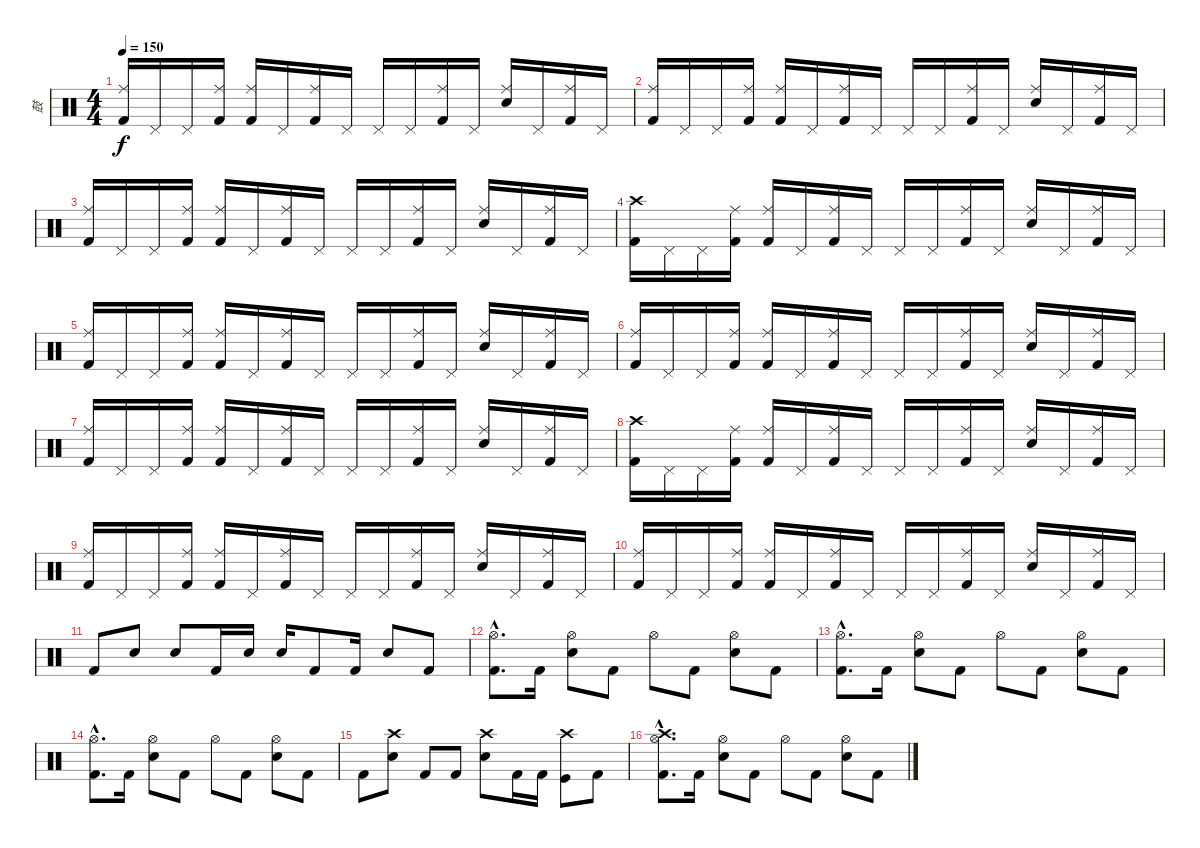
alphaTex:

\track ("鼓" "鼓") {instrument percussion}
\staff {score}
\articulation defaults
\ts (4 4)
\tempo 150
\clef neutral
\ks c
("Ride (middle)" "Kick (hit) 2").16{dy f} "Pedal Hi-Hat (hit)".16 "Pedal Hi-Hat (hit)".16 ("Ride (middle)" "Kick (hit) 2").16 ("Ride (middle)" "Kick (hit) 2").16 "Pedal Hi-Hat (hit)".16 ("Ride (middle)" "Kick (hit) 2").16 "Pedal Hi-Hat (hit)".16 "Pedal Hi-Hat (hit)".16 "Pedal Hi-Hat (hit)".16 ("Ride (middle)" "Kick (hit) 2").16 "Pedal Hi-Hat (hit)".16 ("Ride (middle)" "Electric Snare (hit)").16 "Pedal Hi-Hat (hit)".16 ("Ride (middle)" "Kick (hit) 2").16 "Pedal Hi-Hat (hit)".16 |
("Ride (middle)" "Kick (hit) 2").16 "Pedal Hi-Hat (hit)".16 "Pedal Hi-Hat (hit)".16 ("Ride (middle)" "Kick (hit) 2").16 ("Ride (middle)" "Kick (hit) 2").16 "Pedal Hi-Hat (hit)".16 ("Ride (middle)" "Kick (hit) 2").16 "Pedal Hi-Hat (hit)".16 "Pedal Hi-Hat (hit)".16 "Pedal Hi-Hat (hit)".16 ("Ride (middle)" "Kick (hit) 2").16 "Pedal Hi-Hat (hit)".16 ("Ride (middle)" "Electric Snare (hit)").16 "Pedal Hi-Hat (hit)".16 ("Ride (middle)" "Kick (hit) 2").16 "Pedal Hi-Hat (hit)".16 |
("Ride (middle)" "Kick (hit) 2").16 "Pedal Hi-Hat (hit)".16 "Pedal Hi-Hat (hit)".16 ("Ride (middle)" "Kick (hit) 2").16 ("Ride (middle)" "Kick (hit) 2").16 "Pedal Hi-Hat (hit)".16 ("Ride (middle)" "Kick (hit) 2").16 "Pedal Hi-Hat (hit)".16 "Pedal Hi-Hat (hit)".16 "Pedal Hi-Hat (hit)".16 ("Ride (middle)" "Kick (hit) 2").16 "Pedal Hi-Hat (hit)".16 ("Ride (middle)" "Electric Snare (hit)").16 "Pedal Hi-Hat (hit)".16 ("Ride (middle)" "Kick (hit) 2").16 "Pedal Hi-Hat (hit)".16 |
("Crash high (hit)" "Kick (hit) 2").16 "Pedal Hi-Hat (hit)".16 "Pedal Hi-Hat (hit)".16 ("Ride (middle)" "Kick (hit) 2").16 ("Ride (middle)" "Kick (hit) 2").16 "Pedal Hi-Hat (hit)".16 ("Ride (middle)" "Kick (hit) 2").16 "Pedal Hi-Hat (hit)".16 "Pedal Hi-Hat (hit)".16 "Pedal Hi-Hat (hit)".16 ("Ride (middle)" "Kick (hit) 2").16 "Pedal Hi-Hat (hit)".16 ("Ride (middle)" "Electric Snare (hit)").16 "Pedal Hi-Hat (hit)".16 ("Ride (middle)" "Kick (hit) 2").16 "Pedal Hi-Hat (hit)".16 |
("Ride (middle)" "Kick (hit) 2").16 "Pedal Hi-Hat (hit)".16 "Pedal Hi-Hat (hit)".16 ("Ride (middle)" "Kick (hit) 2").16 ("Ride (middle)" "Kick (hit) 2").16 "Pedal Hi-Hat (hit)".16 ("Ride (middle)" "Kick (hit) 2").16 "Pedal Hi-Hat (hit)".16 "Pedal Hi-Hat (hit)".16 "Pedal Hi-Hat (hit)".16 ("Ride (middle)" "Kick (hit) 2").16 "Pedal Hi-Hat (hit)".16 ("Ride (middle)" "Electric Snare (hit)").16 "Pedal Hi-Hat (hit)".16 ("Ride (middle)" "Kick (hit) 2").16 "Pedal Hi-Hat (hit)".16 |
("Ride (middle)" "Kick (hit) 2").16 "Pedal Hi-Hat (hit)".16 "Pedal Hi-Hat (hit)".16 ("Ride (middle)" "Kick (hit) 2").16 ("Ride (middle)" "Kick (hit) 2").16 "Pedal Hi-Hat (hit)".16 ("Ride (middle)" "Kick (hit) 2").16 "Pedal Hi-Hat (hit)".16 "Pedal Hi-Hat (hit)".16 "Pedal Hi-Hat (hit)".16 ("Ride (middle)" "Kick (hit) 2").16 "Pedal Hi-Hat (hit)".16 ("Ride (middle)" "Electric Snare (hit)").16 "Pedal Hi-Hat (hit)".16 ("Ride (middle)" "Kick (hit) 2").16 "Pedal Hi-Hat (hit)".16 |
("Ride (middle)" "Kick (hit) 2").16 "Pedal Hi-Hat (hit)".16 "Pedal Hi-Hat (hit)".16 ("Ride (middle)" "Kick (hit) 2").16 ("Ride (middle)" "Kick (hit) 2").16 "Pedal Hi-Hat (hit)".16 ("Ride (middle)" "Kick (hit) 2").16 "Pedal Hi-Hat (hit)".16 "Pedal Hi-Hat (hit)".16 "Pedal Hi-Hat (hit)".16 ("Ride (middle)" "Kick (hit) 2").16 "Pedal Hi-Hat (hit)".16 ("Ride (middle)" "Electric Snare (hit)").16 "Pedal Hi-Hat (hit)".16 ("Ride (middle)" "Kick (hit) 2").16 "Pedal Hi-Hat (hit)".16 |
("Crash high (hit)" "Kick (hit) 2").16 "Pedal Hi-Hat (hit)".16 "Pedal Hi-Hat (hit)".16 ("Ride (middle)" "Kick (hit) 2").16 ("Ride (middle)" "Kick (hit) 2").16 "Pedal Hi-Hat (hit)".16 ("Ride (middle)" "Kick (hit) 2").16 "Pedal Hi-Hat (hit)".16 "Pedal Hi-Hat (hit)".16 "Pedal Hi-Hat (hit)".16 ("Ride (middle)" "Kick (hit) 2").16 "Pedal Hi-Hat (hit)".16 ("Ride (middle)" "Electric Snare (hit)").16 "Pedal Hi-Hat (hit)".16 ("Ride (middle)" "Kick (hit) 2").16 "Pedal Hi-Hat (hit)".16 |
("Ride (middle)" "Kick (hit) 2").16 "Pedal Hi-Hat (hit)".16 "Pedal Hi-Hat (hit)".16 ("Ride (middle)" "Kick (hit) 2").16 ("Ride (middle)" "Kick (hit) 2").16 "Pedal Hi-Hat (hit)".16 ("Ride (middle)" "Kick (hit) 2").16 "Pedal Hi-Hat (hit)".16 "Pedal Hi-Hat (hit)".16 "Pedal Hi-Hat (hit)".16 ("Ride (middle)" "Kick (hit) 2").16 "Pedal Hi-Hat (hit)".16 ("Ride (middle)" "Electric Snare (hit)").16 "Pedal Hi-Hat (hit)".16 ("Ride (middle)" "Kick (hit) 2").16 "Pedal Hi-Hat (hit)".16 |
("Ride (middle)" "Kick (hit) 2").16 "Pedal Hi-Hat (hit)".16 "Pedal Hi-Hat (hit)".16 ("Ride (middle)" "Kick (hit) 2").16 ("Ride (middle)" "Kick (hit) 2").16 "Pedal Hi-Hat (hit)".16 ("Ride (middle)" "Kick (hit) 2").16 "Pedal Hi-Hat (hit)".16 "Pedal Hi-Hat (hit)".16 "Pedal Hi-Hat (hit)".16 ("Ride (middle)" "Kick (hit) 2").16 "Pedal Hi-Hat (hit)".16 ("Ride (middle)" "Electric Snare (hit)").16 "Pedal Hi-Hat (hit)".16 ("Ride (middle)" "Kick (hit) 2").16 "Pedal Hi-Hat (hit)".16 |
"Kick (hit) 2".8 "Electric Snare (hit)".8 "Electric Snare (hit)".8 "Kick (hit) 2".16 "Electric Snare (hit)".16 "Electric Snare (hit)".16 "Kick (hit) 2".8 "Kick (hit) 2".16 "Electric Snare (hit)".8 "Kick (hit) 2".8 |
("Hi-Hat (open)"{hac} "Kick (hit) 2"{hac}).8{d} "Kick (hit) 2".16 ("Hi-Hat (open)" "Electric Snare (hit)").8 "Kick (hit) 2".8 "Hi-Hat (open)".8 "Kick (hit) 2".8 ("Hi-Hat (open)" "Electric Snare (hit)").8 "Kick (hit) 2".8 |
("Hi-Hat (open)"{hac} "Kick (hit) 2"{hac}).8{d} "Kick (hit) 2".16 ("Hi-Hat (open)" "Electric Snare (hit)").8 "Kick (hit) 2".8 "Hi-Hat (open)".8 "Kick (hit) 2".8 ("Hi-Hat (open)" "Electric Snare (hit)").8 "Kick (hit) 2".8 |
("Hi-Hat (open)"{hac} "Kick (hit) 2"{hac}).8{d} "Kick (hit) 2".16 ("Hi-Hat (open)" "Electric Snare (hit)").8 "Kick (hit) 2".8 "Hi-Hat (open)".8 "Kick (hit) 2".8 ("Hi-Hat (open)" "Electric Snare (hit)").8 "Kick (hit) 2".8 |
"Kick (hit) 2".8 ("Crash high (hit)" "Electric Snare (hit)").8 "Kick (hit) 2".8 "Kick (hit) 2".8 ("Crash high (hit)" "Electric Snare (hit)").8 "Kick (hit) 2".16 "Kick (hit) 2".16 ("Crash high (hit)" "Kick (hit)").8 "Kick (hit) 2".8 |
("Crash high (hit)"{hac} "Hi-Hat (open)"{hac} "Kick (hit) 2"{hac}).8{d} "Kick (hit) 2".16 ("Hi-Hat (open)" "Electric Snare (hit)").8 "Kick (hit) 2".8 "Hi-Hat (open)".8 "Kick (hit) 2".8 ("Hi-Hat (open)" "Electric Snare (hit)").8 "Kick (hit) 2".8
